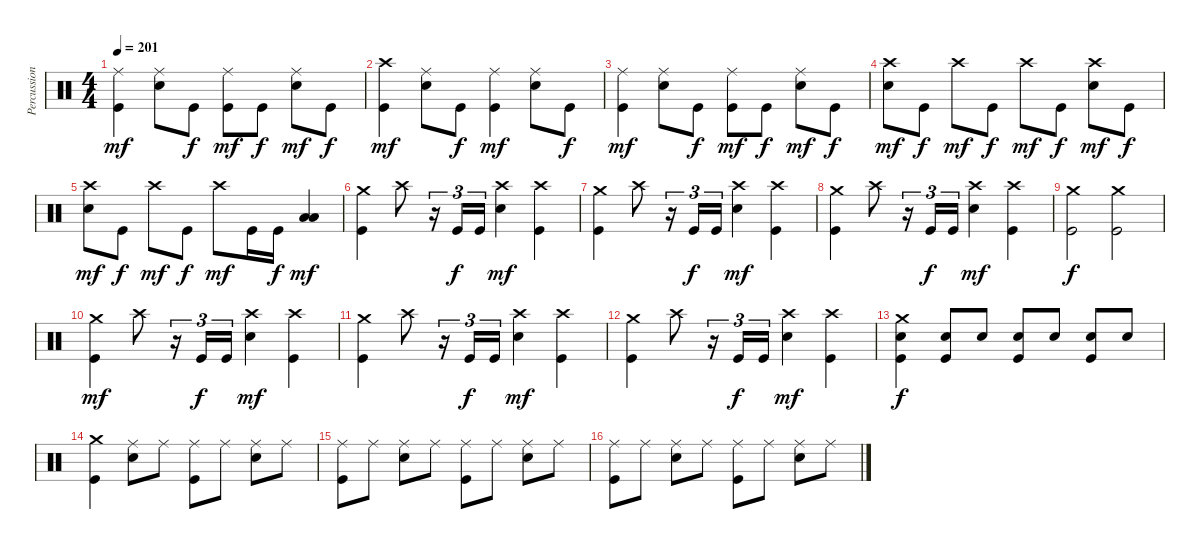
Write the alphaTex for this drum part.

\track ("Percussion" "Percussion") {instrument percussion}
\staff {score}
\articulation defaults
\ts (4 4)
\tempo 201
\clef neutral
\ks c
("Ride (middle)" "Kick (hit)").4{dy mf} ("Ride (middle)" "Electric Snare (hit)").8 "Kick (hit)".8{dy f} ("Ride (middle)" "Kick (hit)").8{dy mf} "Kick (hit)".8{dy f} ("Ride (middle)" "Electric Snare (hit)").8{dy mf} "Kick (hit)".8{dy f} |
("Crash high (hit)" "Kick (hit)").4{dy mf} ("Ride (middle)" "Electric Snare (hit)").8 "Kick (hit)".8{dy f} ("Ride (middle)" "Kick (hit)").4{dy mf} ("Ride (middle)" "Electric Snare (hit)").8 "Kick (hit)".8{dy f} |
("Ride (middle)" "Kick (hit)").4{dy mf} ("Ride (middle)" "Electric Snare (hit)").8 "Kick (hit)".8{dy f} ("Ride (middle)" "Kick (hit)").8{dy mf} "Kick (hit)".8{dy f} ("Ride (middle)" "Electric Snare (hit)").8{dy mf} "Kick (hit)".8{dy f} |
("Crash high (hit)" "Electric Snare (hit)").8{dy mf} "Kick (hit)".8{dy f} "Crash high (hit)".8{dy mf} "Kick (hit)".8{dy f} "Crash high (hit)".8{dy mf} "Kick (hit)".8{dy f} ("Crash high (hit)" "Electric Snare (hit)").8{dy mf} "Kick (hit)".8{dy f} |
("Crash high (hit)" "Electric Snare (hit)").8{dy mf} "Kick (hit)".8{dy f} "Crash high (hit)".8{dy mf} "Kick (hit)".8{dy f} "Crash high (hit)".8{dy mf} "Kick (hit)".16 "Kick (hit)".16{dy f} ("Low Floor Tom (hit)" "Low Floor Tom (hit)").4{dy mf} |
("Crash medium (hit)" "Kick (hit)").4 "Crash high (hit)".8 r.16{tu (3 2)} "Kick (hit)".16{tu (3 2) dy f} "Kick (hit)".16{tu (3 2)} ("Crash high (hit)" "Electric Snare (hit)").4{dy mf} ("Crash high (hit)" "Kick (hit)").4 |
("Crash medium (hit)" "Kick (hit)").4 "Crash high (hit)".8 r.16{tu (3 2)} "Kick (hit)".16{tu (3 2) dy f} "Kick (hit)".16{tu (3 2)} ("Crash high (hit)" "Electric Snare (hit)").4{dy mf} ("Crash high (hit)" "Kick (hit)").4 |
("Crash medium (hit)" "Kick (hit)").4 "Crash high (hit)".8 r.16{tu (3 2)} "Kick (hit)".16{tu (3 2) dy f} "Kick (hit)".16{tu (3 2)} ("Crash high (hit)" "Electric Snare (hit)").4{dy mf} ("Crash high (hit)" "Kick (hit)").4 |
("Crash medium (hit)" "Kick (hit)").2{dy f} ("Crash medium (hit)" "Kick (hit)").2 |
("Crash medium (hit)" "Kick (hit)").4{dy mf} "Crash high (hit)".8 r.16{tu (3 2)} "Kick (hit)".16{tu (3 2) dy f} "Kick (hit)".16{tu (3 2)} ("Crash high (hit)" "Electric Snare (hit)").4{dy mf} ("Crash high (hit)" "Kick (hit)").4 |
("Crash medium (hit)" "Kick (hit)").4 "Crash high (hit)".8 r.16{tu (3 2)} "Kick (hit)".16{tu (3 2) dy f} "Kick (hit)".16{tu (3 2)} ("Crash high (hit)" "Electric Snare (hit)").4{dy mf} ("Crash high (hit)" "Kick (hit)").4 |
("Crash medium (hit)" "Kick (hit)").4 "Crash high (hit)".8 r.16{tu (3 2)} "Kick (hit)".16{tu (3 2) dy f} "Kick (hit)".16{tu (3 2)} ("Crash high (hit)" "Electric Snare (hit)").4{dy mf} ("Crash high (hit)" "Kick (hit)").4 |
("Crash medium (hit)" "Electric Snare (hit)" "Kick (hit)").4{dy f} ("Electric Snare (hit)" "Kick (hit)").8 "Electric Snare (hit)".8 ("Electric Snare (hit)" "Kick (hit)").8 "Electric Snare (hit)".8 ("Electric Snare (hit)" "Kick (hit)").8 "Electric Snare (hit)".8 |
("Crash medium (hit)" "Kick (hit)").4 ("Ride (middle)" "Electric Snare (hit)").8 "Ride (middle)".8 ("Ride (middle)" "Kick (hit)").8 "Ride (middle)".8 ("Ride (middle)" "Electric Snare (hit)").8 "Ride (middle)".8 |
("Ride (middle)" "Kick (hit)").8 "Ride (middle)".8 ("Ride (middle)" "Electric Snare (hit)").8 "Ride (middle)".8 ("Ride (middle)" "Kick (hit)").8 "Ride (middle)".8 ("Ride (middle)" "Electric Snare (hit)").8 "Ride (middle)".8 |
("Ride (middle)" "Kick (hit)").8 "Ride (middle)".8 ("Ride (middle)" "Electric Snare (hit)").8 "Ride (middle)".8 ("Ride (middle)" "Kick (hit)").8 "Ride (middle)".8 ("Ride (middle)" "Electric Snare (hit)").8 "Ride (middle)".8
